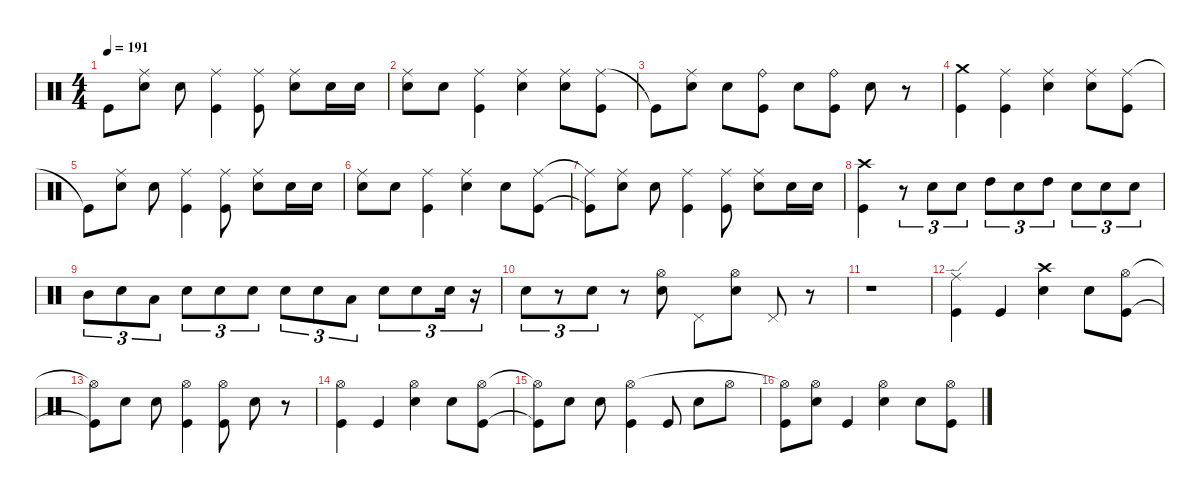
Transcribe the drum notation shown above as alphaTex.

\defaultSystemsLayout 4
\hideDynamics
\bracketExtendMode nobrackets
\singleTrackTrackNamePolicy hidden
\multiTrackTrackNamePolicy hidden
\firstSystemTrackNameMode fullname
\firstSystemTrackNameOrientation horizontal
\otherSystemsTrackNameOrientation horizontal
\track ("Drumkit" "drm.") {instrument percussion}
\staff {score}
\articulation defaults
\ts (4 4)
\tempo 191
\clef neutral
\ks c "Kick (hit)"{t}.8{dy mf beam Down}
("Ride (middle)" "Snare (hit) 2").8{dy f beam Down} "Snare (hit) 2".8{beam Down} ("Ride (middle)" "Kick (hit)").4{beam Down} ("Ride (middle)" "Kick (hit)").8{beam Down} ("Ride (middle)" "Snare (hit) 2").8{beam Down} "Snare (hit) 2".16{dy mp beam Down} "Snare (hit) 2".16{beam Down} |
("Ride (middle)" "Snare (hit) 2").8{dy f beam Down} "Snare (hit) 2".8{dy mf beam Down} ("Ride (middle)" "Kick (hit)").4{dy f beam Down} ("Ride (middle)" "Snare (hit) 2").4{beam Down} ("Ride (middle)" "Snare (hit) 2").8{beam Down} ("Ride (middle)" "Kick (hit)").8{beam Down} |
"Kick (hit)"{t}.8{dy mf beam Down} ("Ride (middle)" "Snare (hit) 2").8{dy f beam Down} "Snare (hit) 2".8{beam Down} ("Ride (bell)" "Kick (hit)").8{beam Down} "Snare (hit) 2".8{dy mf beam Down} ("Ride (bell)" "Kick (hit)").8{dy f beam Down} "Snare (hit) 2".8{beam Down} r.8{beam Down} |
("Crash medium (hit)" "Kick (hit)").4{beam Down} ("Ride (middle)" "Kick (hit)").4{dy mp beam Down} ("Ride (middle)" "Snare (hit) 2").4{beam Down} ("Ride (middle)" "Snare (hit) 2").8{dy f beam Down} ("Ride (middle)" "Kick (hit)").8{beam Down} |
"Kick (hit)"{t}.8{beam Down} ("Ride (middle)" "Snare (hit) 2").8{beam Down} "Snare (hit) 2".8{beam Down} ("Ride (middle)" "Kick (hit)").4{beam Down} ("Ride (middle)" "Kick (hit)").8{beam Down} ("Ride (middle)" "Snare (hit) 2").8{beam Down} "Snare (hit) 2".16{dy mp beam Down} "Snare (hit) 2".16{beam Down} |
("Ride (middle)" "Snare (hit) 2").8{dy f beam Down} "Snare (hit) 2".8{dy mf beam Down} ("Ride (middle)" "Kick (hit)").4{dy f beam Down} ("Ride (middle)" "Snare (hit) 2").4{beam Down} "Snare (hit) 2".8{dy mf beam Down} ("Ride (middle)" "Kick (hit)").8{beam Down} |
("Ride (middle)"{t} "Kick (hit)"{t}).8{beam Down} ("Ride (middle)" "Snare (hit) 2").8{dy f beam Down} "Snare (hit) 2".8{beam Down} ("Kick (hit)" "Ride (middle)").4{beam Down} ("Ride (middle)" "Kick (hit)").8{beam Down} ("Ride (middle)" "Snare (hit) 2").8{beam Down} "Snare (hit) 2".16{dy mp beam Down} "Snare (hit) 2".16{beam Down} |
("Kick (hit)" "Crash high (hit)").4{dy f beam Down} r.8{tu (3 2) beam Down} "Snare (hit) 2".8{tu (3 2) dy mp beam Down} "Snare (hit) 2".8{tu (3 2) beam Down} "High Tom (hit)".8{tu (3 2) dy f beam Down} "Snare (hit) 2".8{tu (3 2) dy p beam Down} "High Tom (hit)".8{tu (3 2) dy f beam Down} "Snare (hit) 2".8{tu (3 2) dy p beam Down} "Snare (hit) 2".8{tu (3 2) dy mp beam Down} "Snare (hit) 2".8{tu (3 2) beam Down} |
"Mid Tom (hit)".8{tu (3 2) dy f beam Down} "Snare (hit) 2".8{tu (3 2) dy p beam Down} "Low Tom (hit)".8{tu (3 2) dy f beam Down} "Snare (hit) 2".8{tu (3 2) dy p beam Down} "Snare (hit) 2".8{tu (3 2) dy mp beam Down} "Snare (hit) 2".8{tu (3 2) dy mf beam Down} "Snare (hit) 2".8{tu (3 2) dy f beam Down} "Snare (hit) 2".8{tu (3 2) dy p beam Down} "Low Tom (hit)".8{tu (3 2) dy mf beam Down} "Snare (hit) 2".8{tu (3 2) dy mp beam Down} "Snare (hit) 2".8{tu (3 2) beam Down} "Snare (hit) 2".16{tu (3 2) dy p beam Down} r.16{tu (3 2) beam Down} |
"Snare (hit) 2".8{tu (3 2) dy f beam Down} r.8{tu (3 2) beam Down} "Snare (hit) 2".8{tu (3 2) beam Down} r.8{beam Down} ("Snare (hit) 2" "Hi-Hat (open)").8{beam Down} "Pedal Hi-Hat (hit)".8{beam Down} ("Snare (hit) 2" "Hi-Hat (open)").8{beam Down} "Pedal Hi-Hat (hit)".8{beam Up} r.8{beam Up} |
r.1{beam Down} |
("Kick (hit)" "Ride (edge)").4{beam Down} "Kick (hit)".4{beam Up} ("Snare (hit) 2" "Crash high (hit)").4{beam Down} "Snare (hit) 2".8{beam Down} ("Kick (hit)" "Hi-Hat (open)").8{beam Down} |
("Kick (hit)"{t} "Hi-Hat (open)"{t}).8{beam Down} "Snare (hit) 2".8{dy mp beam Down} "Snare (hit) 2".8{dy mf beam Down} ("Kick (hit)" "Hi-Hat (open)").4{beam Down} ("Hi-Hat (open)" "Kick (hit)").8{dy f beam Down} "Snare (hit) 2".8{dy mf beam Down} r.8{beam Down} |
("Kick (hit)" "Hi-Hat (open)").4{dy f beam Down} "Kick (hit)".4{beam Up} ("Snare (hit) 2" "Hi-Hat (open)").4{beam Down} "Snare (hit) 2".8{beam Down} ("Kick (hit)" "Hi-Hat (open)").8{beam Down} |
("Kick (hit)"{t} "Hi-Hat (open)"{t}).8{dy mf beam Down} "Snare (hit) 2".8{beam Down} "Snare (hit) 2".8{beam Down} ("Kick (hit)" "Hi-Hat (open)").4{beam Down} "Kick (hit)".8{beam Up} "Snare (hit) 2".8{beam Down} "Hi-Hat (open)".8{beam Down} |
("Kick (hit)" "Hi-Hat (open)"{t}).8{beam Down} ("Hi-Hat (open)" "Snare (hit) 2").8{dy f beam Down} "Kick (hit)".4{dy mf beam Up} ("Snare (hit) 2" "Hi-Hat (open)").4{beam Down} "Snare (hit) 2".8{beam Down} ("Kick (hit)" "Hi-Hat (open)").8{beam Down}
